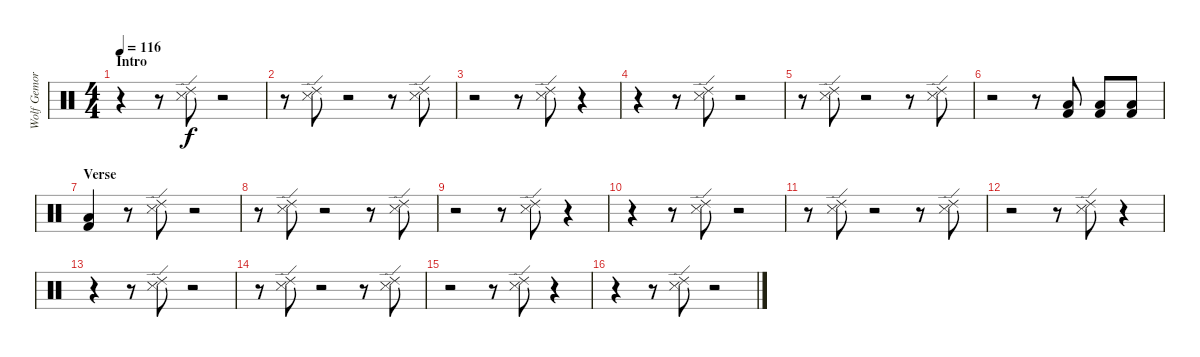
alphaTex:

\track ("Wolf Gemora" "Wolf Gemor") {instrument percussion}
\staff {score}
\articulation defaults
\ts (4 4)
\section ("" "Intro")
\tempo 116
\clef neutral
\ks c
r.4{dy f balance 14} r.8 ("Snare (side stick) 3" "Ride (edge) 2").8 r.2 |
r.8 ("Snare (side stick) 3" "Ride (edge) 2").8 r.2 r.8 ("Snare (side stick) 3" "Ride (edge) 2").8 |
r.2 r.8 ("Snare (side stick) 3" "Ride (edge) 2").8 r.4 |
r.4 r.8 ("Snare (side stick) 3" "Ride (edge) 2").8 r.2 |
r.8 ("Snare (side stick) 3" "Ride (edge) 2").8 r.2 r.8 ("Snare (side stick) 3" "Ride (edge) 2").8 |
r.2 r.8 ("Low Tom (hit)" "Kick (hit) 2").8 ("Low Tom (hit)" "Kick (hit) 2").8 ("Low Tom (hit)" "Kick (hit) 2").8 |
\section ("" "Verse")
("Low Tom (hit)" "Kick (hit) 2").4 r.8 ("Snare (side stick) 3" "Ride (edge) 2").8 r.2 |
r.8 ("Snare (side stick) 3" "Ride (edge) 2").8 r.2 r.8 ("Snare (side stick) 3" "Ride (edge) 2").8 |
r.2 r.8 ("Snare (side stick) 3" "Ride (edge) 2").8 r.4 |
r.4 r.8 ("Snare (side stick) 3" "Ride (edge) 2").8 r.2 |
r.8 ("Snare (side stick) 3" "Ride (edge) 2").8 r.2 r.8 ("Snare (side stick) 3" "Ride (edge) 2").8 |
r.2 r.8 ("Snare (side stick) 3" "Ride (edge) 2").8 r.4 |
r.4 r.8 ("Snare (side stick) 3" "Ride (edge) 2").8 r.2 |
r.8 ("Snare (side stick) 3" "Ride (edge) 2").8 r.2 r.8 ("Snare (side stick) 3" "Ride (edge) 2").8 |
r.2 r.8 ("Snare (side stick) 3" "Ride (edge) 2").8 r.4 |
r.4 r.8 ("Snare (side stick) 3" "Ride (edge) 2").8 r.2
